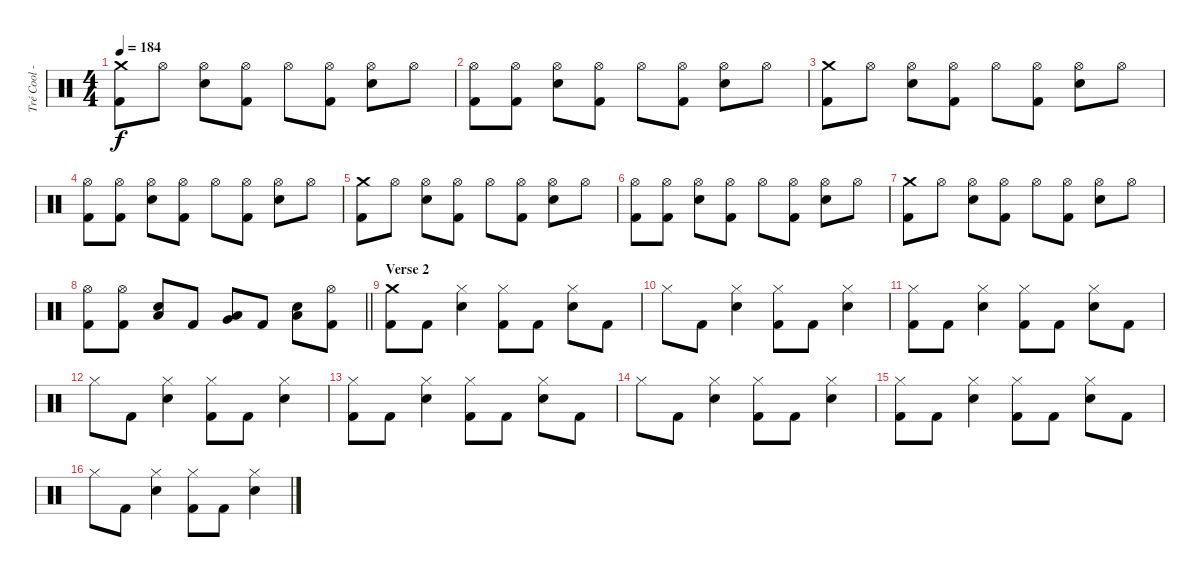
\track ("Tré Cool - Drums" "Tré Cool -") {instrument percussion}
\staff {score}
\articulation defaults
\ts (4 4)
\tempo 184
\clef neutral
\ks c
("Crash medium (hit)" "Kick (hit) 2").8{dy f} "Hi-Hat (open)".8 ("Hi-Hat (open)" "Electric Snare (hit)").8 ("Hi-Hat (open)" "Kick (hit) 2").8 "Hi-Hat (open)".8 ("Hi-Hat (open)" "Kick (hit) 2").8 ("Hi-Hat (open)" "Electric Snare (hit)").8 "Hi-Hat (open)".8 |
("Hi-Hat (open)" "Kick (hit) 2").8 ("Hi-Hat (open)" "Kick (hit) 2").8 ("Hi-Hat (open)" "Electric Snare (hit)").8 ("Hi-Hat (open)" "Kick (hit) 2").8 "Hi-Hat (open)".8 ("Hi-Hat (open)" "Kick (hit) 2").8 ("Hi-Hat (open)" "Electric Snare (hit)").8 "Hi-Hat (open)".8 |
("Crash medium (hit)" "Kick (hit) 2").8 "Hi-Hat (open)".8 ("Hi-Hat (open)" "Electric Snare (hit)").8 ("Hi-Hat (open)" "Kick (hit) 2").8 "Hi-Hat (open)".8 ("Hi-Hat (open)" "Kick (hit) 2").8 ("Hi-Hat (open)" "Electric Snare (hit)").8 "Hi-Hat (open)".8 |
("Hi-Hat (open)" "Kick (hit) 2").8 ("Hi-Hat (open)" "Kick (hit) 2").8 ("Hi-Hat (open)" "Electric Snare (hit)").8 ("Hi-Hat (open)" "Kick (hit) 2").8 "Hi-Hat (open)".8 ("Hi-Hat (open)" "Kick (hit) 2").8 ("Hi-Hat (open)" "Electric Snare (hit)").8 "Hi-Hat (open)".8 |
("Crash medium (hit)" "Kick (hit) 2").8 "Hi-Hat (open)".8 ("Hi-Hat (open)" "Electric Snare (hit)").8 ("Hi-Hat (open)" "Kick (hit) 2").8 "Hi-Hat (open)".8 ("Hi-Hat (open)" "Kick (hit) 2").8 ("Hi-Hat (open)" "Electric Snare (hit)").8 "Hi-Hat (open)".8 |
("Hi-Hat (open)" "Kick (hit) 2").8 ("Hi-Hat (open)" "Kick (hit) 2").8 ("Hi-Hat (open)" "Electric Snare (hit)").8 ("Hi-Hat (open)" "Kick (hit) 2").8 "Hi-Hat (open)".8 ("Hi-Hat (open)" "Kick (hit) 2").8 ("Hi-Hat (open)" "Electric Snare (hit)").8 "Hi-Hat (open)".8 |
("Crash medium (hit)" "Kick (hit) 2").8 "Hi-Hat (open)".8 ("Hi-Hat (open)" "Electric Snare (hit)").8 ("Hi-Hat (open)" "Kick (hit) 2").8 "Hi-Hat (open)".8 ("Hi-Hat (open)" "Kick (hit) 2").8 ("Hi-Hat (open)" "Electric Snare (hit)").8 "Hi-Hat (open)".8 |
\barLineRight lightlight
("Hi-Hat (open)" "Kick (hit) 2").8 ("Hi-Hat (open)" "Kick (hit) 2").8 ("Low Tom (hit)" "Electric Snare (hit)").8 "Kick (hit) 2".8 ("Very Low Tom (hit)" "Low Tom (hit)").8 "Kick (hit) 2".8 ("Low Floor Tom (hit)" "Electric Snare (hit)").8 ("Hi-Hat (open)" "Kick (hit) 2").8 |
\section ("" "Verse 2")
("Crash medium (hit)" "Kick (hit) 2").8 "Kick (hit) 2".8 ("Hi-Hat (closed)" "Electric Snare (hit)").4 ("Hi-Hat (closed)" "Kick (hit) 2").8 "Kick (hit) 2".8 ("Hi-Hat (closed)" "Electric Snare (hit)").8 "Kick (hit) 2".8 |
"Hi-Hat (closed)".8 "Kick (hit) 2".8 ("Hi-Hat (closed)" "Electric Snare (hit)").4 ("Hi-Hat (closed)" "Kick (hit) 2").8 "Kick (hit) 2".8 ("Hi-Hat (closed)" "Electric Snare (hit)").4 |
("Hi-Hat (closed)" "Kick (hit) 2").8 "Kick (hit) 2".8 ("Hi-Hat (closed)" "Electric Snare (hit)").4 ("Hi-Hat (closed)" "Kick (hit) 2").8 "Kick (hit) 2".8 ("Hi-Hat (closed)" "Electric Snare (hit)").8 "Kick (hit) 2".8 |
"Hi-Hat (closed)".8 "Kick (hit) 2".8 ("Hi-Hat (closed)" "Electric Snare (hit)").4 ("Hi-Hat (closed)" "Kick (hit) 2").8 "Kick (hit) 2".8 ("Hi-Hat (closed)" "Electric Snare (hit)").4 |
("Hi-Hat (closed)" "Kick (hit) 2").8 "Kick (hit) 2".8 ("Hi-Hat (closed)" "Electric Snare (hit)").4 ("Hi-Hat (closed)" "Kick (hit) 2").8 "Kick (hit) 2".8 ("Hi-Hat (closed)" "Electric Snare (hit)").8 "Kick (hit) 2".8 |
"Hi-Hat (closed)".8 "Kick (hit) 2".8 ("Hi-Hat (closed)" "Electric Snare (hit)").4 ("Hi-Hat (closed)" "Kick (hit) 2").8 "Kick (hit) 2".8 ("Hi-Hat (closed)" "Electric Snare (hit)").4 |
("Hi-Hat (closed)" "Kick (hit) 2").8 "Kick (hit) 2".8 ("Hi-Hat (closed)" "Electric Snare (hit)").4 ("Hi-Hat (closed)" "Kick (hit) 2").8 "Kick (hit) 2".8 ("Hi-Hat (closed)" "Electric Snare (hit)").8 "Kick (hit) 2".8 |
"Hi-Hat (closed)".8 "Kick (hit) 2".8 ("Hi-Hat (closed)" "Electric Snare (hit)").4 ("Hi-Hat (closed)" "Kick (hit) 2").8 "Kick (hit) 2".8 ("Hi-Hat (closed)" "Electric Snare (hit)").4
